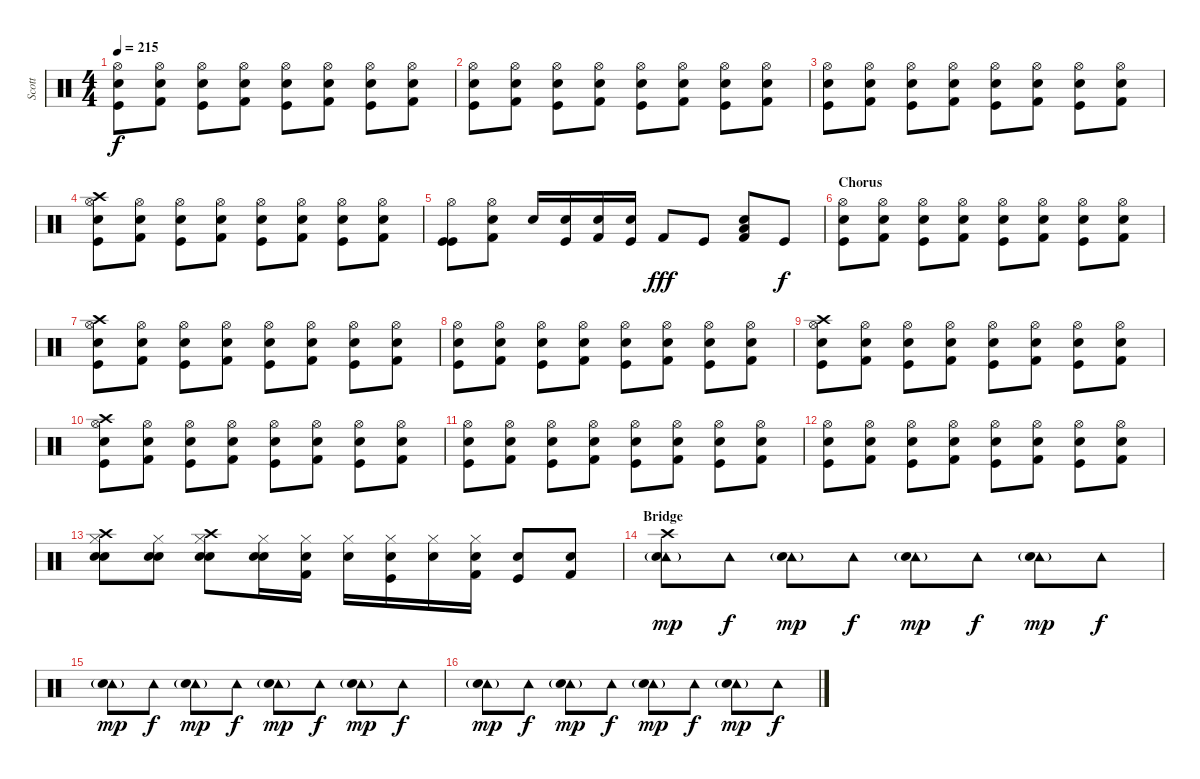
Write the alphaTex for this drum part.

\track ("Scott" "Scott") {instrument percussion}
\staff {score}
\articulation defaults
\ts (4 4)
\tempo 215
\clef neutral
\ks c
("Hi-Hat (open)" "Snare (hit) 2" "Kick (hit)").8{dy f} ("Hi-Hat (open)" "Electric Snare (hit)" "Kick (hit) 2").8 ("Hi-Hat (open)" "Snare (hit) 2" "Kick (hit)").8 ("Hi-Hat (open)" "Electric Snare (hit)" "Kick (hit) 2").8 ("Hi-Hat (open)" "Snare (hit) 2" "Kick (hit)").8 ("Hi-Hat (open)" "Electric Snare (hit)" "Kick (hit) 2").8 ("Hi-Hat (open)" "Snare (hit) 2" "Kick (hit)").8 ("Hi-Hat (open)" "Electric Snare (hit)" "Kick (hit) 2").8 |
("Hi-Hat (open)" "Snare (hit) 2" "Kick (hit)").8 ("Hi-Hat (open)" "Electric Snare (hit)" "Kick (hit) 2").8 ("Hi-Hat (open)" "Snare (hit) 2" "Kick (hit)").8 ("Hi-Hat (open)" "Electric Snare (hit)" "Kick (hit) 2").8 ("Hi-Hat (open)" "Snare (hit) 2" "Kick (hit)").8 ("Hi-Hat (open)" "Electric Snare (hit)" "Kick (hit) 2").8 ("Hi-Hat (open)" "Snare (hit) 2" "Kick (hit)").8 ("Hi-Hat (open)" "Electric Snare (hit)" "Kick (hit) 2").8 |
("Hi-Hat (open)" "Snare (hit) 2" "Kick (hit)").8 ("Hi-Hat (open)" "Electric Snare (hit)" "Kick (hit) 2").8 ("Hi-Hat (open)" "Snare (hit) 2" "Kick (hit)").8 ("Hi-Hat (open)" "Electric Snare (hit)" "Kick (hit) 2").8 ("Hi-Hat (open)" "Snare (hit) 2" "Kick (hit)").8 ("Hi-Hat (open)" "Electric Snare (hit)" "Kick (hit) 2").8 ("Hi-Hat (open)" "Snare (hit) 2" "Kick (hit)").8 ("Hi-Hat (open)" "Electric Snare (hit)" "Kick (hit) 2").8 |
("Crash high (hit)" "Hi-Hat (open)" "Snare (hit) 2" "Kick (hit)").8 ("Hi-Hat (open)" "Electric Snare (hit)" "Kick (hit) 2").8 ("Hi-Hat (open)" "Snare (hit) 2" "Kick (hit)").8 ("Hi-Hat (open)" "Electric Snare (hit)" "Kick (hit) 2").8 ("Hi-Hat (open)" "Snare (hit) 2" "Kick (hit)").8 ("Hi-Hat (open)" "Electric Snare (hit)" "Kick (hit) 2").8 ("Hi-Hat (open)" "Snare (hit) 2" "Kick (hit)").8 ("Hi-Hat (open)" "Electric Snare (hit)" "Kick (hit) 2").8 |
("Hi-Hat (open)" "Kick (hit)" "Kick (hit)").8 ("Hi-Hat (open)" "Electric Snare (hit)" "Kick (hit) 2").8 "Snare (hit) 2".16 ("Snare (hit) 2" "Kick (hit)").16 ("Snare (hit) 2" "Kick (hit) 2").16 ("Snare (hit) 2" "Kick (hit)").16 "Kick (hit) 2".8{dy fff} "Kick (hit)".8 ("Snare (hit) 2" "Low Floor Tom (hit)" "Kick (hit) 2").8 "Kick (hit)".8{dy f} |
\section ("" "Chorus")
("Hi-Hat (open)" "Snare (hit) 2" "Kick (hit)").8 ("Hi-Hat (open)" "Electric Snare (hit)" "Kick (hit) 2").8 ("Hi-Hat (open)" "Snare (hit) 2" "Kick (hit)").8 ("Hi-Hat (open)" "Electric Snare (hit)" "Kick (hit) 2").8 ("Hi-Hat (open)" "Snare (hit) 2" "Kick (hit)").8 ("Hi-Hat (open)" "Electric Snare (hit)" "Kick (hit) 2").8 ("Hi-Hat (open)" "Snare (hit) 2" "Kick (hit)").8 ("Hi-Hat (open)" "Electric Snare (hit)" "Kick (hit) 2").8 |
("Crash high (hit)" "Hi-Hat (open)" "Snare (hit) 2" "Kick (hit)").8 ("Hi-Hat (open)" "Electric Snare (hit)" "Kick (hit) 2").8 ("Hi-Hat (open)" "Snare (hit) 2" "Kick (hit)").8 ("Hi-Hat (open)" "Electric Snare (hit)" "Kick (hit) 2").8 ("Hi-Hat (open)" "Snare (hit) 2" "Kick (hit)").8 ("Hi-Hat (open)" "Electric Snare (hit)" "Kick (hit) 2").8 ("Hi-Hat (open)" "Snare (hit) 2" "Kick (hit)").8 ("Hi-Hat (open)" "Electric Snare (hit)" "Kick (hit) 2").8 |
("Hi-Hat (open)" "Snare (hit) 2" "Kick (hit)").8 ("Hi-Hat (open)" "Electric Snare (hit)" "Kick (hit) 2").8 ("Hi-Hat (open)" "Snare (hit) 2" "Kick (hit)").8 ("Hi-Hat (open)" "Electric Snare (hit)" "Kick (hit) 2").8 ("Hi-Hat (open)" "Snare (hit) 2" "Kick (hit)").8 ("Hi-Hat (open)" "Electric Snare (hit)" "Kick (hit) 2").8 ("Hi-Hat (open)" "Snare (hit) 2" "Kick (hit)").8 ("Hi-Hat (open)" "Electric Snare (hit)" "Kick (hit) 2").8 |
("Crash high (hit)" "Hi-Hat (open)" "Snare (hit) 2" "Kick (hit)").8 ("Hi-Hat (open)" "Electric Snare (hit)" "Kick (hit) 2").8 ("Hi-Hat (open)" "Snare (hit) 2" "Kick (hit)").8 ("Hi-Hat (open)" "Electric Snare (hit)" "Kick (hit) 2").8 ("Hi-Hat (open)" "Snare (hit) 2" "Kick (hit)").8 ("Hi-Hat (open)" "Electric Snare (hit)" "Kick (hit) 2").8 ("Hi-Hat (open)" "Snare (hit) 2" "Kick (hit)").8 ("Hi-Hat (open)" "Electric Snare (hit)" "Kick (hit) 2").8 |
("Crash high (hit)" "Hi-Hat (open)" "Snare (hit) 2" "Kick (hit)").8 ("Hi-Hat (open)" "Electric Snare (hit)" "Kick (hit) 2").8 ("Hi-Hat (open)" "Snare (hit) 2" "Kick (hit)").8 ("Hi-Hat (open)" "Electric Snare (hit)" "Kick (hit) 2").8 ("Hi-Hat (open)" "Snare (hit) 2" "Kick (hit)").8 ("Hi-Hat (open)" "Electric Snare (hit)" "Kick (hit) 2").8 ("Hi-Hat (open)" "Snare (hit) 2" "Kick (hit)").8 ("Hi-Hat (open)" "Electric Snare (hit)" "Kick (hit) 2").8 |
("Hi-Hat (open)" "Snare (hit) 2" "Kick (hit)").8 ("Hi-Hat (open)" "Electric Snare (hit)" "Kick (hit) 2").8 ("Hi-Hat (open)" "Snare (hit) 2" "Kick (hit)").8 ("Hi-Hat (open)" "Electric Snare (hit)" "Kick (hit) 2").8 ("Hi-Hat (open)" "Snare (hit) 2" "Kick (hit)").8 ("Hi-Hat (open)" "Electric Snare (hit)" "Kick (hit) 2").8 ("Hi-Hat (open)" "Snare (hit) 2" "Kick (hit)").8 ("Hi-Hat (open)" "Electric Snare (hit)" "Kick (hit) 2").8 |
("Hi-Hat (open)" "Snare (hit) 2" "Kick (hit)").8 ("Hi-Hat (open)" "Electric Snare (hit)" "Kick (hit) 2").8 ("Hi-Hat (open)" "Snare (hit) 2" "Kick (hit)").8 ("Hi-Hat (open)" "Electric Snare (hit)" "Kick (hit) 2").8 ("Hi-Hat (open)" "Snare (hit) 2" "Kick (hit)").8 ("Hi-Hat (open)" "Electric Snare (hit)" "Kick (hit) 2").8 ("Hi-Hat (open)" "Snare (hit) 2" "Kick (hit)").8 ("Hi-Hat (open)" "Electric Snare (hit)" "Kick (hit) 2").8 |
("Snare (hit) 2" "Electric Snare (hit)" "Crash high (hit)" "Hi-Hat (closed)").8 ("Snare (hit) 2" "Electric Snare (hit)" "Hi-Hat (closed)").8 ("Snare (hit) 2" "Electric Snare (hit)" "Crash high (hit)" "Hi-Hat (closed)").8 ("Snare (hit) 2" "Electric Snare (hit)" "Hi-Hat (closed)").16 ("Kick (hit) 2" "Electric Snare (hit)" "Hi-Hat (closed)").16 ("Snare (hit) 2" "Hi-Hat (closed)").16 ("Kick (hit)" "Electric Snare (hit)" "Hi-Hat (closed)").16 ("Snare (hit) 2" "Hi-Hat (closed)").16 ("Kick (hit) 2" "Electric Snare (hit)" "Hi-Hat (closed)").16 ("Snare (hit) 2" "Kick (hit)").8 ("Snare (hit) 2" "Kick (hit) 2").8 |
\section ("" "Bridge")
("Crash high (hit)" "Tambourine (hit)" "Electric Snare (hit)"{g}).8{dy mp} "Tambourine (hit)".8{dy f} ("Tambourine (hit)" "Electric Snare (hit)"{g}).8{dy mp} "Tambourine (hit)".8{dy f} ("Tambourine (hit)" "Electric Snare (hit)"{g}).8{dy mp} "Tambourine (hit)".8{dy f} ("Tambourine (hit)" "Electric Snare (hit)"{g}).8{dy mp} "Tambourine (hit)".8{dy f} |
("Tambourine (hit)" "Electric Snare (hit)"{g}).8{dy mp} "Tambourine (hit)".8{dy f} ("Tambourine (hit)" "Electric Snare (hit)"{g}).8{dy mp} "Tambourine (hit)".8{dy f} ("Tambourine (hit)" "Electric Snare (hit)"{g}).8{dy mp} "Tambourine (hit)".8{dy f} ("Tambourine (hit)" "Electric Snare (hit)"{g}).8{dy mp} "Tambourine (hit)".8{dy f} |
("Tambourine (hit)" "Electric Snare (hit)"{g}).8{dy mp} "Tambourine (hit)".8{dy f} ("Tambourine (hit)" "Electric Snare (hit)"{g}).8{dy mp} "Tambourine (hit)".8{dy f} ("Tambourine (hit)" "Electric Snare (hit)"{g}).8{dy mp} "Tambourine (hit)".8{dy f} ("Tambourine (hit)" "Electric Snare (hit)"{g}).8{dy mp} "Tambourine (hit)".8{dy f}
